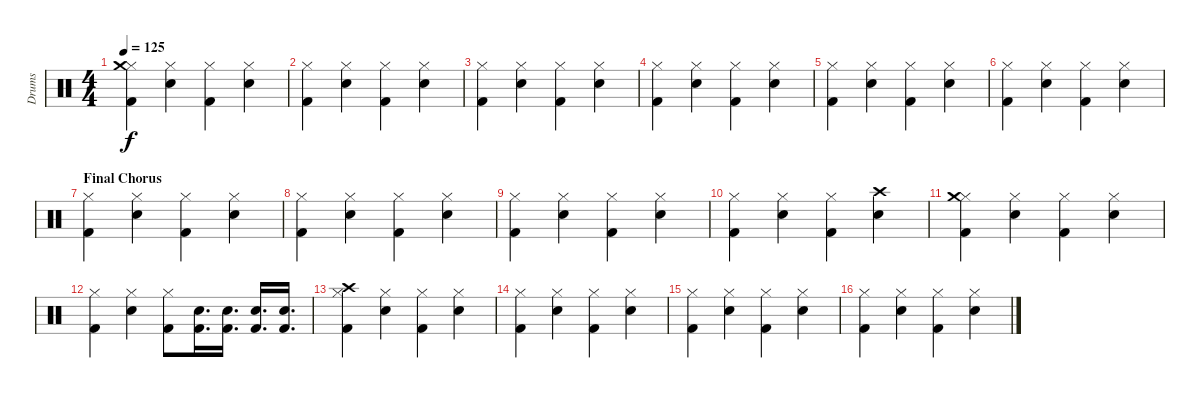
\track ("Drums" "Drums") {instrument percussion}
\staff {score}
\articulation defaults
\ts (4 4)
\tempo 125
\clef neutral
\ks c
("Hi-Hat (closed)" "Crash medium (hit)" "Kick (hit) 2").4{dy f} ("Hi-Hat (closed)" "Electric Snare (hit)").4 ("Hi-Hat (closed)" "Kick (hit) 2").4 ("Hi-Hat (closed)" "Electric Snare (hit)").4 |
("Hi-Hat (closed)" "Kick (hit) 2").4 ("Hi-Hat (closed)" "Electric Snare (hit)").4 ("Hi-Hat (closed)" "Kick (hit) 2").4 ("Hi-Hat (closed)" "Electric Snare (hit)").4 |
("Hi-Hat (closed)" "Kick (hit) 2").4 ("Hi-Hat (closed)" "Electric Snare (hit)").4 ("Hi-Hat (closed)" "Kick (hit) 2").4 ("Hi-Hat (closed)" "Electric Snare (hit)").4 |
("Hi-Hat (closed)" "Kick (hit) 2").4 ("Hi-Hat (closed)" "Electric Snare (hit)").4 ("Hi-Hat (closed)" "Kick (hit) 2").4 ("Hi-Hat (closed)" "Electric Snare (hit)").4 |
("Hi-Hat (closed)" "Kick (hit) 2").4 ("Hi-Hat (closed)" "Electric Snare (hit)").4 ("Hi-Hat (closed)" "Kick (hit) 2").4 ("Hi-Hat (closed)" "Electric Snare (hit)").4 |
("Hi-Hat (closed)" "Kick (hit) 2").4 ("Hi-Hat (closed)" "Electric Snare (hit)").4 ("Hi-Hat (closed)" "Kick (hit) 2").4 ("Hi-Hat (closed)" "Electric Snare (hit)").4 |
\section ("" "Final Chorus")
("Hi-Hat (closed)" "Kick (hit) 2").4 ("Hi-Hat (closed)" "Electric Snare (hit)").4 ("Hi-Hat (closed)" "Kick (hit) 2").4 ("Hi-Hat (closed)" "Electric Snare (hit)").4 |
("Hi-Hat (closed)" "Kick (hit) 2").4 ("Hi-Hat (closed)" "Electric Snare (hit)").4 ("Hi-Hat (closed)" "Kick (hit) 2").4 ("Hi-Hat (closed)" "Electric Snare (hit)").4 |
("Hi-Hat (closed)" "Kick (hit) 2").4 ("Hi-Hat (closed)" "Electric Snare (hit)").4 ("Hi-Hat (closed)" "Kick (hit) 2").4 ("Hi-Hat (closed)" "Electric Snare (hit)").4 |
("Hi-Hat (closed)" "Kick (hit) 2").4 ("Hi-Hat (closed)" "Electric Snare (hit)").4 ("Hi-Hat (closed)" "Kick (hit) 2").4 ("Crash high (hit)" "Electric Snare (hit)").4 |
("Hi-Hat (closed)" "Crash medium (hit)" "Kick (hit) 2").4 ("Hi-Hat (closed)" "Electric Snare (hit)").4 ("Hi-Hat (closed)" "Kick (hit) 2").4 ("Hi-Hat (closed)" "Electric Snare (hit)").4 |
("Hi-Hat (closed)" "Kick (hit) 2").4 ("Hi-Hat (closed)" "Electric Snare (hit)").4 ("Hi-Hat (closed)" "Kick (hit) 2").8 ("Electric Snare (hit)" "Kick (hit) 2").16{d} ("Electric Snare (hit)" "Kick (hit) 2").16{d} ("Electric Snare (hit)" "Kick (hit) 2").16{d} ("Electric Snare (hit)" "Kick (hit) 2").16{d} |
("Hi-Hat (closed)" "Crash high (hit)" "Kick (hit) 2").4 ("Hi-Hat (closed)" "Electric Snare (hit)").4 ("Hi-Hat (closed)" "Kick (hit) 2").4 ("Hi-Hat (closed)" "Electric Snare (hit)").4 |
("Hi-Hat (closed)" "Kick (hit) 2").4 ("Hi-Hat (closed)" "Electric Snare (hit)").4 ("Hi-Hat (closed)" "Kick (hit) 2").4 ("Hi-Hat (closed)" "Electric Snare (hit)").4 |
("Hi-Hat (closed)" "Kick (hit) 2").4 ("Hi-Hat (closed)" "Electric Snare (hit)").4 ("Hi-Hat (closed)" "Kick (hit) 2").4 ("Hi-Hat (closed)" "Electric Snare (hit)").4 |
("Hi-Hat (closed)" "Kick (hit) 2").4 ("Hi-Hat (closed)" "Electric Snare (hit)").4 ("Hi-Hat (closed)" "Kick (hit) 2").4 ("Hi-Hat (closed)" "Electric Snare (hit)").4
